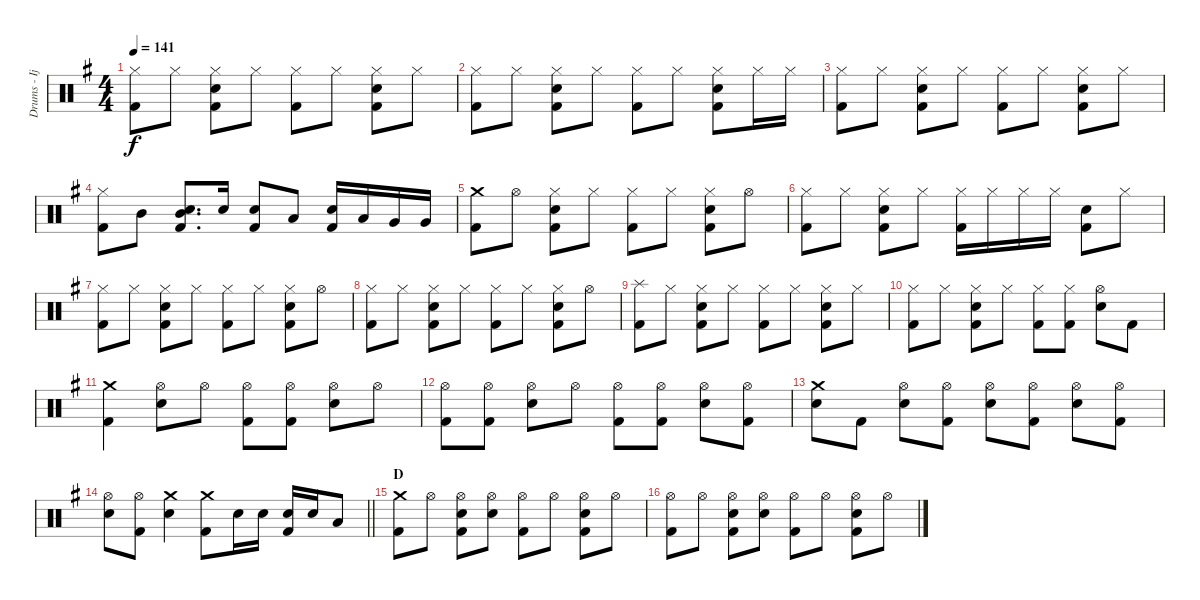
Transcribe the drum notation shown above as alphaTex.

\track ("Drums - Ijichi Kiyoshi" "Drums - Ij") {instrument percussion}
\staff {score}
\articulation defaults
\ts (4 4)
\tempo 141
\clef neutral
\ks g
("Hi-Hat (closed)" "Kick (hit) 2").8{dy f} "Hi-Hat (closed)".8 ("Hi-Hat (closed)" "Electric Snare (hit)" "Kick (hit) 2").8 "Hi-Hat (closed)".8 ("Hi-Hat (closed)" "Kick (hit) 2").8 "Hi-Hat (closed)".8 ("Hi-Hat (closed)" "Electric Snare (hit)" "Kick (hit) 2").8 "Hi-Hat (closed)".8 |
("Hi-Hat (closed)" "Kick (hit) 2").8 "Hi-Hat (closed)".8 ("Hi-Hat (closed)" "Electric Snare (hit)" "Kick (hit) 2").8 "Hi-Hat (closed)".8 ("Hi-Hat (closed)" "Kick (hit) 2").8 "Hi-Hat (closed)".8 ("Hi-Hat (closed)" "Electric Snare (hit)" "Kick (hit) 2").8 "Hi-Hat (closed)".16 "Hi-Hat (closed)".16 |
("Hi-Hat (closed)" "Kick (hit) 2").8 "Hi-Hat (closed)".8 ("Hi-Hat (closed)" "Electric Snare (hit)" "Kick (hit) 2").8 "Hi-Hat (closed)".8 ("Hi-Hat (closed)" "Kick (hit) 2").8 "Hi-Hat (closed)".8 ("Hi-Hat (closed)" "Electric Snare (hit)" "Kick (hit) 2").8 "Hi-Hat (closed)".8 |
("Hi-Hat (closed)" "Kick (hit) 2").8 "Mid Tom (hit)".8 ("Mid Tom (hit)" "Electric Snare (hit)" "Kick (hit) 2").8{d} "Electric Snare (hit)".16 ("Electric Snare (hit)" "Kick (hit) 2").8 "Low Tom (hit)".8 ("Electric Snare (hit)" "Kick (hit) 2").16 "Low Tom (hit)".16 "Very Low Tom (hit)".16 "Very Low Tom (hit)".16 |
("Crash medium (hit)" "Kick (hit) 2").8 "Hi-Hat (open)".8 ("Hi-Hat (closed)" "Electric Snare (hit)" "Kick (hit) 2").8 "Hi-Hat (closed)".8 ("Hi-Hat (closed)" "Kick (hit) 2").8 "Hi-Hat (closed)".8 ("Hi-Hat (closed)" "Electric Snare (hit)" "Kick (hit) 2").8 "Hi-Hat (open)".8 |
("Hi-Hat (closed)" "Kick (hit) 2").8 "Hi-Hat (closed)".8 ("Hi-Hat (closed)" "Electric Snare (hit)" "Kick (hit) 2").8 "Hi-Hat (closed)".8 ("Hi-Hat (closed)" "Kick (hit) 2").16 "Hi-Hat (closed)".16 "Hi-Hat (closed)".16 "Hi-Hat (closed)".16 ("Electric Snare (hit)" "Kick (hit) 2").8 "Hi-Hat (closed)".8 |
("Hi-Hat (closed)" "Kick (hit) 2").8 "Hi-Hat (closed)".8 ("Hi-Hat (closed)" "Electric Snare (hit)" "Kick (hit) 2").8 "Hi-Hat (closed)".8 ("Hi-Hat (closed)" "Kick (hit) 2").8 "Hi-Hat (closed)".8 ("Hi-Hat (closed)" "Electric Snare (hit)" "Kick (hit) 2").8 "Hi-Hat (open)".8 |
("Hi-Hat (closed)" "Kick (hit) 2").8 "Hi-Hat (closed)".8 ("Hi-Hat (closed)" "Electric Snare (hit)" "Kick (hit) 2").8 "Hi-Hat (closed)".8 ("Hi-Hat (closed)" "Kick (hit) 2").8 "Hi-Hat (closed)".8 ("Hi-Hat (closed)" "Electric Snare (hit)" "Kick (hit) 2").8 "Hi-Hat (open)".8 |
("Splash (hit)" "Kick (hit) 2").8 "Hi-Hat (closed)".8 ("Hi-Hat (closed)" "Electric Snare (hit)" "Kick (hit) 2").8 "Hi-Hat (closed)".8 ("Hi-Hat (closed)" "Kick (hit) 2").8 "Hi-Hat (closed)".8 ("Hi-Hat (closed)" "Electric Snare (hit)" "Kick (hit) 2").8 "Hi-Hat (closed)".8 |
("Hi-Hat (closed)" "Kick (hit) 2").8 "Hi-Hat (closed)".8 ("Hi-Hat (closed)" "Electric Snare (hit)" "Kick (hit) 2").8 "Hi-Hat (closed)".8 ("Hi-Hat (closed)" "Kick (hit) 2").8 ("Hi-Hat (closed)" "Kick (hit) 2").8 ("Hi-Hat (open)" "Electric Snare (hit)").8 "Kick (hit) 2".8 |
("Crash medium (hit)" "Kick (hit) 2").4 ("Hi-Hat (open)" "Electric Snare (hit)").8 "Hi-Hat (open)".8 ("Hi-Hat (open)" "Kick (hit) 2").8 ("Hi-Hat (open)" "Kick (hit) 2").8 ("Hi-Hat (open)" "Electric Snare (hit)").8 "Hi-Hat (open)".8 |
("Hi-Hat (open)" "Kick (hit) 2").8 ("Hi-Hat (open)" "Kick (hit) 2").8 ("Hi-Hat (open)" "Electric Snare (hit)").8 "Hi-Hat (open)".8 ("Hi-Hat (open)" "Kick (hit) 2").8 ("Hi-Hat (open)" "Kick (hit) 2").8 ("Hi-Hat (open)" "Electric Snare (hit)").8 ("Hi-Hat (open)" "Kick (hit) 2").8 |
("Crash medium (hit)" "Electric Snare (hit)").8 "Kick (hit) 2".8 ("Hi-Hat (open)" "Electric Snare (hit)").8 ("Hi-Hat (open)" "Kick (hit) 2").8 ("Hi-Hat (open)" "Electric Snare (hit)").8 ("Hi-Hat (open)" "Kick (hit) 2").8 ("Hi-Hat (open)" "Electric Snare (hit)").8 ("Hi-Hat (open)" "Kick (hit) 2").8 |
\barLineRight lightlight
("Hi-Hat (open)" "Electric Snare (hit)").8 ("Hi-Hat (open)" "Kick (hit) 2").8 ("Crash medium (hit)" "Electric Snare (hit)").4 ("Crash medium (hit)" "Kick (hit) 2").8 "Electric Snare (hit)".16 "Electric Snare (hit)".16 ("Electric Snare (hit)" "Kick (hit) 2").16 "Electric Snare (hit)".16 "Low Tom (hit)".8 |
\section ("" "D")
("Crash medium (hit)" "Kick (hit) 2").8 "Hi-Hat (open)".8 ("Hi-Hat (open)" "Electric Snare (hit)" "Kick (hit) 2").8 ("Hi-Hat (open)" "Electric Snare (hit)").8 ("Hi-Hat (open)" "Kick (hit) 2").8 "Hi-Hat (open)".8 ("Hi-Hat (open)" "Electric Snare (hit)" "Kick (hit) 2").8 "Hi-Hat (open)".8 |
("Hi-Hat (open)" "Kick (hit) 2").8 "Hi-Hat (open)".8 ("Hi-Hat (open)" "Electric Snare (hit)" "Kick (hit) 2").8 ("Hi-Hat (open)" "Electric Snare (hit)").8 ("Hi-Hat (open)" "Kick (hit) 2").8 "Hi-Hat (open)".8 ("Hi-Hat (open)" "Electric Snare (hit)" "Kick (hit) 2").8 "Hi-Hat (open)".8
